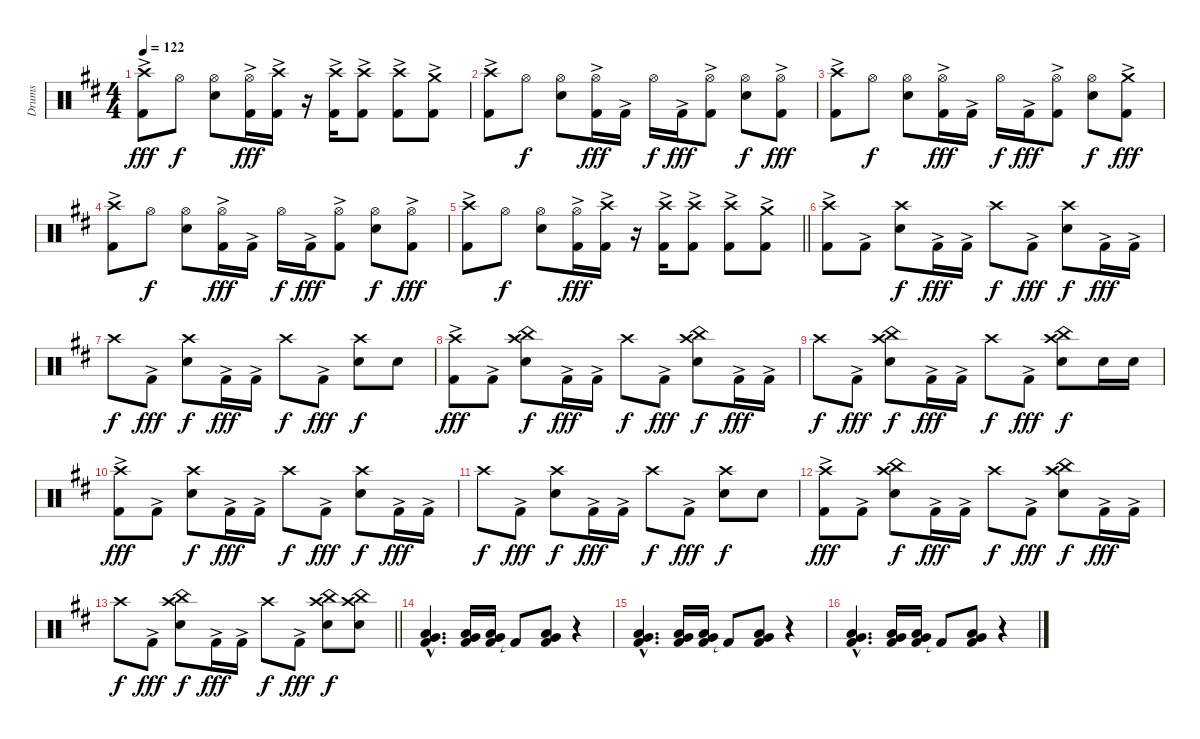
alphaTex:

\track ("Drums" "Drums") {instrument percussion}
\staff {score}
\articulation defaults
\ts (4 4)
\tempo 122
\clef neutral
\ks bminor
("Crash high (hit)" "Kick (hit) 2"{ac}).8{dy fff} "Hi-Hat (open)".8{dy f} ("Hi-Hat (open)" "Snare (hit) 2").8 ("Hi-Hat (open)" "Kick (hit) 2"{ac}).16{dy fff} ("Crash high (hit)" "Kick (hit) 2"{ac}).16 r.16 ("Crash high (hit)" "Kick (hit) 2"{ac}).16 ("Crash high (hit)" "Kick (hit) 2"{ac}).8 ("Crash high (hit)" "Kick (hit) 2"{ac}).8 ("Crash medium (hit)" "Kick (hit) 2"{ac}).8 |
("Crash high (hit)" "Kick (hit) 2"{ac}).8 "Hi-Hat (open)".8{dy f} ("Hi-Hat (open)" "Snare (hit) 2").8 ("Hi-Hat (open)" "Kick (hit) 2"{ac}).16{dy fff} "Kick (hit) 2"{ac}.16 "Hi-Hat (open)".16{dy f} "Kick (hit) 2"{ac}.16{dy fff} ("Hi-Hat (open)" "Kick (hit) 2"{ac}).8 ("Hi-Hat (open)" "Snare (hit) 2").8{dy f} ("Hi-Hat (open)" "Kick (hit) 2"{ac}).8{dy fff} |
("Crash high (hit)" "Kick (hit) 2"{ac}).8 "Hi-Hat (open)".8{dy f} ("Hi-Hat (open)" "Snare (hit) 2").8 ("Hi-Hat (open)" "Kick (hit) 2"{ac}).16{dy fff} "Kick (hit) 2"{ac}.16 "Hi-Hat (open)".16{dy f} "Kick (hit) 2"{ac}.16{dy fff} ("Hi-Hat (open)" "Kick (hit) 2"{ac}).8 ("Hi-Hat (open)" "Snare (hit) 2").8{dy f} ("Crash medium (hit)" "Kick (hit) 2"{ac}).8{dy fff} |
("Crash high (hit)" "Kick (hit) 2"{ac}).8 "Hi-Hat (open)".8{dy f} ("Hi-Hat (open)" "Snare (hit) 2").8 ("Hi-Hat (open)" "Kick (hit) 2"{ac}).16{dy fff} "Kick (hit) 2"{ac}.16 "Hi-Hat (open)".16{dy f} "Kick (hit) 2"{ac}.16{dy fff} ("Hi-Hat (open)" "Kick (hit) 2"{ac}).8 ("Hi-Hat (open)" "Snare (hit) 2").8{dy f} ("Hi-Hat (open)" "Kick (hit) 2"{ac}).8{dy fff} |
\barLineRight lightlight
("Crash high (hit)" "Kick (hit) 2"{ac}).8 "Hi-Hat (open)".8{dy f} ("Hi-Hat (open)" "Snare (hit) 2").8 ("Hi-Hat (open)" "Kick (hit) 2"{ac}).16{dy fff} ("Crash high (hit)" "Kick (hit) 2"{ac}).16 r.16 ("Crash high (hit)" "Kick (hit) 2"{ac}).16 ("Crash high (hit)" "Kick (hit) 2"{ac}).8 ("Crash high (hit)" "Kick (hit) 2"{ac}).8 ("Crash medium (hit)" "Kick (hit) 2"{ac}).8 |
("Crash high (hit)" "Kick (hit) 2"{ac}).8 "Kick (hit) 2"{ac}.8 ("Crash high (hit)" "Snare (hit) 2").8{dy f} "Kick (hit) 2"{ac}.16{dy fff} "Kick (hit) 2"{ac}.16 "Crash high (hit)".8{dy f} "Kick (hit) 2"{ac}.8{dy fff} ("Crash high (hit)" "Snare (hit) 2").8{dy f} "Kick (hit) 2"{ac}.16{dy fff} "Kick (hit) 2"{ac}.16 |
"Crash high (hit)".8{dy f} "Kick (hit) 2"{ac}.8{dy fff} ("Crash high (hit)" "Snare (hit) 2").8{dy f} "Kick (hit) 2"{ac}.16{dy fff} "Kick (hit) 2"{ac}.16 "Crash high (hit)".8{dy f} "Kick (hit) 2"{ac}.8{dy fff} ("Crash high (hit)" "Snare (hit) 2").8{dy f} "Snare (hit) 2".8 |
("Crash high (hit)" "Kick (hit) 2"{ac}).8{dy fff} "Kick (hit) 2"{ac}.8 ("Crash high (hit)" "China (hit)" "Snare (hit) 2").8{dy f} "Kick (hit) 2"{ac}.16{dy fff} "Kick (hit) 2"{ac}.16 "Crash high (hit)".8{dy f} "Kick (hit) 2"{ac}.8{dy fff} ("Crash high (hit)" "China (hit)" "Snare (hit) 2").8{dy f} "Kick (hit) 2"{ac}.16{dy fff} "Kick (hit) 2"{ac}.16 |
"Crash high (hit)".8{dy f} "Kick (hit) 2"{ac}.8{dy fff} ("Crash high (hit)" "China (hit)" "Snare (hit) 2").8{dy f} "Kick (hit) 2"{ac}.16{dy fff} "Kick (hit) 2"{ac}.16 "Crash high (hit)".8{dy f} "Kick (hit) 2"{ac}.8{dy fff} ("Crash high (hit)" "China (hit)" "Snare (hit) 2").8{dy f} "Snare (hit) 2".16 "Snare (hit) 2".16 |
("Crash high (hit)" "Kick (hit) 2"{ac}).8{dy fff} "Kick (hit) 2"{ac}.8 ("Crash high (hit)" "Snare (hit) 2").8{dy f} "Kick (hit) 2"{ac}.16{dy fff} "Kick (hit) 2"{ac}.16 "Crash high (hit)".8{dy f} "Kick (hit) 2"{ac}.8{dy fff} ("Crash high (hit)" "Snare (hit) 2").8{dy f} "Kick (hit) 2"{ac}.16{dy fff} "Kick (hit) 2"{ac}.16 |
"Crash high (hit)".8{dy f} "Kick (hit) 2"{ac}.8{dy fff} ("Crash high (hit)" "Snare (hit) 2").8{dy f} "Kick (hit) 2"{ac}.16{dy fff} "Kick (hit) 2"{ac}.16 "Crash high (hit)".8{dy f} "Kick (hit) 2"{ac}.8{dy fff} ("Crash high (hit)" "Snare (hit) 2").8{dy f} "Snare (hit) 2".8 |
("Crash high (hit)" "Kick (hit) 2"{ac}).8{dy fff} "Kick (hit) 2"{ac}.8 ("Crash high (hit)" "China (hit)" "Snare (hit) 2").8{dy f} "Kick (hit) 2"{ac}.16{dy fff} "Kick (hit) 2"{ac}.16 "Crash high (hit)".8{dy f} "Kick (hit) 2"{ac}.8{dy fff} ("Crash high (hit)" "China (hit)" "Snare (hit) 2").8{dy f} "Kick (hit) 2"{ac}.16{dy fff} "Kick (hit) 2"{ac}.16 |
\barLineRight lightlight "Crash high (hit)".8{dy f} "Kick (hit) 2"{ac}.8{dy fff}
("Crash high (hit)" "China (hit)" "Snare (hit) 2").8{dy f} "Kick (hit) 2"{ac}.16{dy fff} "Kick (hit) 2"{ac}.16 "Crash high (hit)".8{dy f} "Kick (hit) 2"{ac}.8{dy fff} ("Crash high (hit)" "China (hit)" "Snare (hit) 2").8{dy f} ("Crash high (hit)" "China (hit)" "Snare (hit) 2").8 |
("Very Low Tom (hit)"{hac} "Low Floor Tom (hit)"{hac} "Kick (hit) 2"{hac}).4{d} ("Very Low Tom (hit)" "Low Floor Tom (hit)" "Kick (hit) 2").16 ("Very Low Tom (hit)" "Low Floor Tom (hit)" "Kick (hit) 2").16 "Kick (hit) 2"{t}.8 ("Very Low Tom (hit)" "Low Floor Tom (hit)" "Kick (hit) 2").8 r.4 |
("Very Low Tom (hit)"{hac} "Low Floor Tom (hit)"{hac} "Kick (hit) 2"{hac}).4{d} ("Very Low Tom (hit)" "Low Floor Tom (hit)" "Kick (hit) 2").16 ("Very Low Tom (hit)" "Low Floor Tom (hit)" "Kick (hit) 2").16 "Kick (hit) 2"{t}.8 ("Very Low Tom (hit)" "Low Floor Tom (hit)" "Kick (hit) 2").8 r.4 |
("Very Low Tom (hit)"{hac} "Low Floor Tom (hit)"{hac} "Kick (hit) 2"{hac}).4{d} ("Very Low Tom (hit)" "Low Floor Tom (hit)" "Kick (hit) 2").16 ("Very Low Tom (hit)" "Low Floor Tom (hit)" "Kick (hit) 2").16 "Kick (hit) 2"{t}.8 ("Very Low Tom (hit)" "Low Floor Tom (hit)" "Kick (hit) 2").8 r.4
